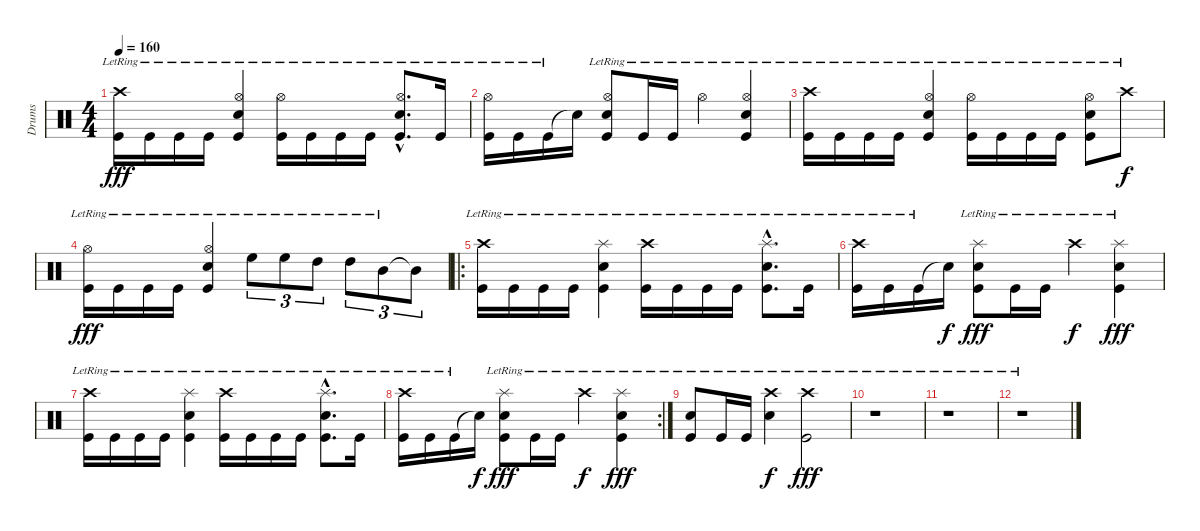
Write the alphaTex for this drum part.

\track ("Drums" "Drums") {instrument percussion}
\staff {score}
\articulation defaults
\ts (4 4)
\tempo 160
\clef neutral
\ks c
("Crash high (hit)"{lr} "Kick (hit)"{lr}).16{dy fff} "Kick (hit)"{lr}.16 "Kick (hit)"{lr}.16 "Kick (hit)"{lr}.16 ("Hi-Hat (open)"{lr} "Snare (hit) 2"{lr} "Kick (hit)"{lr}).4 ("Hi-Hat (open)"{lr} "Kick (hit)"{lr}).16 "Kick (hit)"{lr}.16 "Kick (hit)"{lr}.16 "Kick (hit)"{lr}.16 ("Hi-Hat (open)"{hac lr} "Snare (hit) 2"{hac lr} "Kick (hit)"{hac lr}).8{d} "Kick (hit)"{lr}.16 |
("Hi-Hat (open)"{lr} "Kick (hit)"{lr}).16 "Kick (hit)"{lr}.16 "Kick (hit)"{lr}.16 "Snare (hit)"{t}.16 ("Hi-Hat (open)"{lr} "Snare (hit) 2"{lr} "Kick (hit)"{lr}).8 "Kick (hit)"{lr}.16 "Kick (hit)"{lr}.16 "Hi-Hat (open)"{lr}.4 ("Hi-Hat (open)"{lr} "Snare (hit) 2"{lr} "Kick (hit)"{lr}).4 |
("Crash high (hit)"{lr} "Kick (hit)"{lr}).16 "Kick (hit)"{lr}.16 "Kick (hit)"{lr}.16 "Kick (hit)"{lr}.16 ("Hi-Hat (open)"{lr} "Snare (hit) 2"{lr} "Kick (hit)"{lr}).4 ("Hi-Hat (open)"{lr} "Kick (hit)"{lr}).16 "Kick (hit)"{lr}.16 "Kick (hit)"{lr}.16 "Kick (hit)"{lr}.16 ("Hi-Hat (open)"{lr} "Snare (hit) 2"{lr} "Kick (hit)"{lr}).8 "Crash high (hit)"{lr}.8{dy f} |
("Hi-Hat (open)"{lr} "Kick (hit)"{lr}).16{dy fff} "Kick (hit)"{lr}.16 "Kick (hit)"{lr}.16 "Kick (hit)"{lr}.16 ("Hi-Hat (open)"{lr} "Snare (hit) 2"{lr} "Kick (hit)"{lr}).4 "High Floor Tom (hit)"{lr}.8{tu (3 2)} "High Floor Tom (hit)"{lr}.8{tu (3 2)} "High Tom (hit)"{lr}.8{tu (3 2)} "High Tom (hit)"{lr}.8{tu (3 2)} "Mid Tom (hit)"{lr}.8{tu (3 2)} "Mid Tom (hit)"{t}.8{tu (3 2)} |
\ro
("Crash high (hit)"{lr} "Kick (hit)"{lr}).16 "Kick (hit)"{lr}.16 "Kick (hit)"{lr}.16 "Kick (hit)"{lr}.16 ("Splash (hit)"{lr} "Snare (hit) 2"{lr} "Kick (hit)"{lr}).4 ("Crash high (hit)"{lr} "Kick (hit)"{lr}).16 "Kick (hit)"{lr}.16 "Kick (hit)"{lr}.16 "Kick (hit)"{lr}.16 ("Splash (hit)"{hac lr} "Snare (hit) 2"{hac lr} "Kick (hit)"{hac lr}).8{d} "Kick (hit)"{lr}.16 |
("Crash high (hit)"{lr} "Kick (hit)"{lr}).16 "Kick (hit)"{lr}.16 "Kick (hit)"{lr}.16 "Snare (hit)"{t}.16{dy f} ("Splash (hit)"{lr} "Snare (hit) 2"{lr} "Kick (hit)"{lr}).8{dy fff} "Kick (hit)"{lr}.16 "Kick (hit)"{lr}.16 "Crash high (hit)"{lr}.4{dy f} ("Splash (hit)"{lr} "Snare (hit) 2"{lr} "Kick (hit)"{lr}).4{dy fff} |
("Crash high (hit)"{lr} "Kick (hit)"{lr}).16 "Kick (hit)"{lr}.16 "Kick (hit)"{lr}.16 "Kick (hit)"{lr}.16 ("Splash (hit)"{lr} "Snare (hit) 2"{lr} "Kick (hit)"{lr}).4 ("Crash high (hit)"{lr} "Kick (hit)"{lr}).16 "Kick (hit)"{lr}.16 "Kick (hit)"{lr}.16 "Kick (hit)"{lr}.16 ("Splash (hit)"{hac lr} "Snare (hit) 2"{hac lr} "Kick (hit)"{hac lr}).8{d} "Kick (hit)"{lr}.16 |
\rc 2
("Crash high (hit)"{lr} "Kick (hit)"{lr}).16 "Kick (hit)"{lr}.16 "Kick (hit)"{lr}.16 "Snare (hit)"{t}.16{dy f} ("Splash (hit)"{lr} "Snare (hit) 2"{lr} "Kick (hit)"{lr}).8{dy fff} "Kick (hit)"{lr}.16 "Kick (hit)"{lr}.16 "Crash high (hit)"{lr}.4{dy f} ("Splash (hit)"{lr} "Snare (hit) 2"{lr} "Kick (hit)"{lr}).4{dy fff} |
("Snare (hit) 2"{lr} "Kick (hit)"{lr}).8 "Kick (hit)"{lr}.16 "Kick (hit)"{lr}.16 ("Crash high (hit)"{lr} "Snare (hit) 2"{lr}).4{dy f} ("Crash high (hit)"{lr} "Kick (hit)"{lr}).2{dy fff} |
r.1 |
r.1 |
r.1
